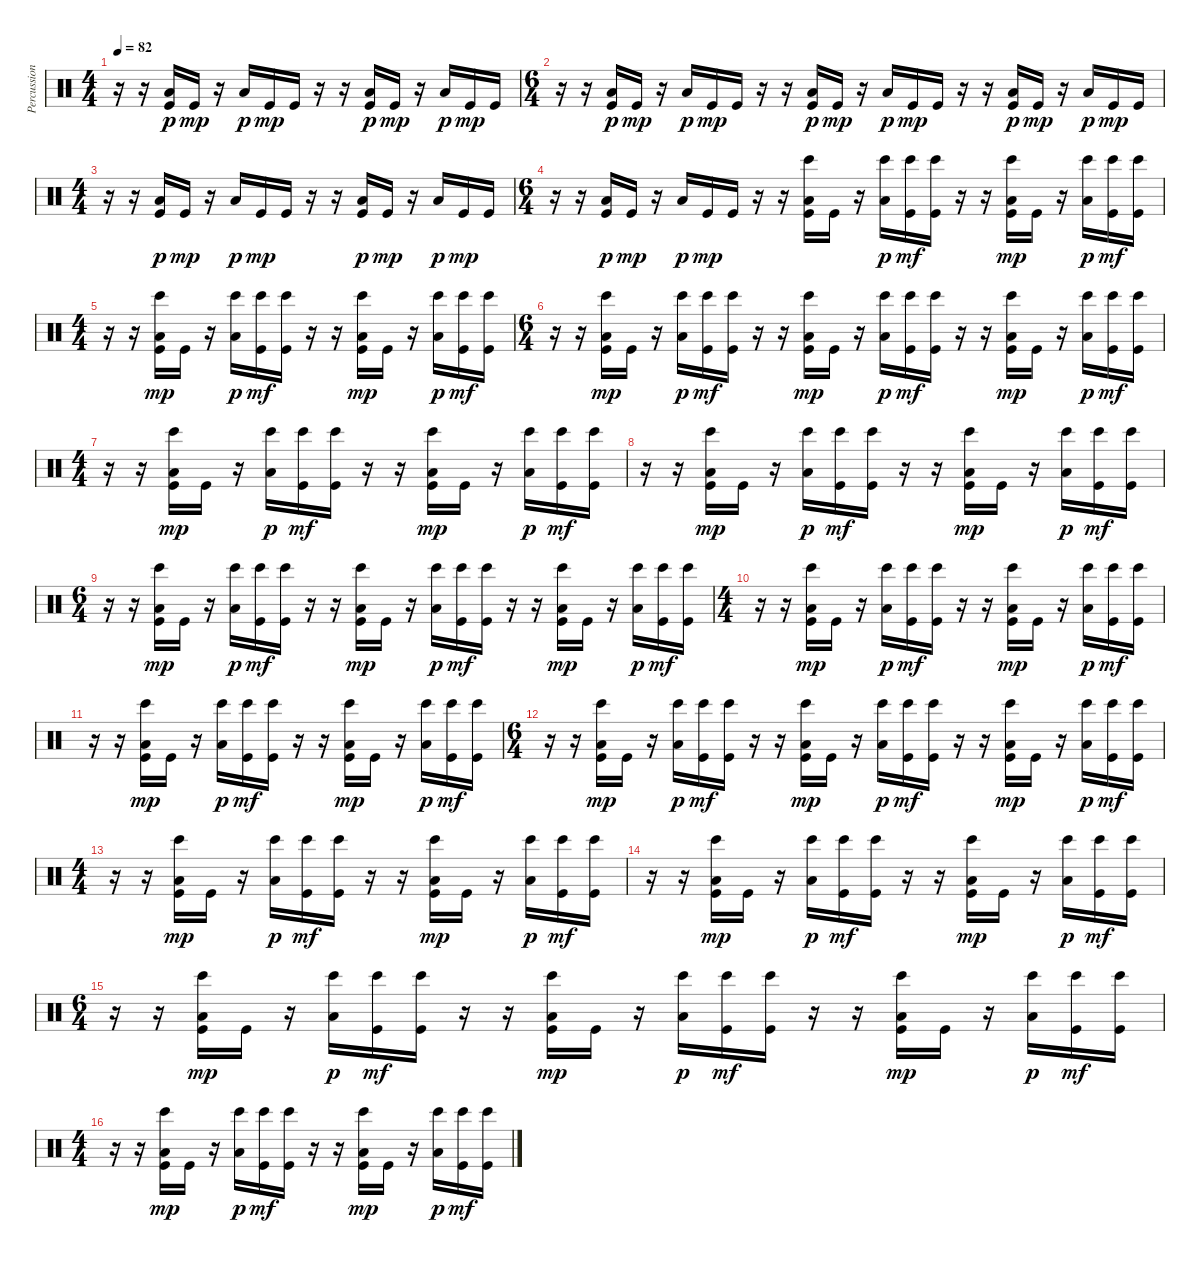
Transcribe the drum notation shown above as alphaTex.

\track ("Percussion" "Percussion") {instrument percussion}
\staff {score}
\articulation defaults
\ts (4 4)
\tempo 82
\clef neutral
\ks c
r.16{dy mp} r.16 ("Kick (hit)" "Low Floor Tom (hit)").16{dy p} "Kick (hit)".16{dy mp} r.16 "Low Floor Tom (hit)".16{dy p} "Kick (hit)".16{dy mp} "Kick (hit)".16 r.16 r.16 ("Kick (hit)" "Low Floor Tom (hit)").16{dy p} "Kick (hit)".16{dy mp} r.16 "Low Floor Tom (hit)".16{dy p} "Kick (hit)".16{dy mp} "Kick (hit)".16 |
\ts (6 4)
r.16 r.16 ("Kick (hit)" "Low Floor Tom (hit)").16{dy p} "Kick (hit)".16{dy mp} r.16 "Low Floor Tom (hit)".16{dy p} "Kick (hit)".16{dy mp} "Kick (hit)".16 r.16 r.16 ("Kick (hit)" "Low Floor Tom (hit)").16{dy p} "Kick (hit)".16{dy mp} r.16 "Low Floor Tom (hit)".16{dy p} "Kick (hit)".16{dy mp} "Kick (hit)".16 r.16 r.16 ("Kick (hit)" "Low Floor Tom (hit)").16{dy p} "Kick (hit)".16{dy mp} r.16 "Low Floor Tom (hit)".16{dy p} "Kick (hit)".16{dy mp} "Kick (hit)".16 |
\ts (4 4)
r.16 r.16 ("Kick (hit)" "Low Floor Tom (hit)").16{dy p} "Kick (hit)".16{dy mp} r.16 "Low Floor Tom (hit)".16{dy p} "Kick (hit)".16{dy mp} "Kick (hit)".16 r.16 r.16 ("Kick (hit)" "Low Floor Tom (hit)").16{dy p} "Kick (hit)".16{dy mp} r.16 "Low Floor Tom (hit)".16{dy p} "Kick (hit)".16{dy mp} "Kick (hit)".16 |
\ts (6 4)
r.16 r.16 ("Kick (hit)" "Low Floor Tom (hit)").16{dy p} "Kick (hit)".16{dy mp} r.16 "Low Floor Tom (hit)".16{dy p} "Kick (hit)".16{dy mp} "Kick (hit)".16 r.16 r.16 ("Kick (hit)" "Low Floor Tom (hit)" "Bongo High (hit)").16 "Kick (hit)".16 r.16 ("Low Floor Tom (hit)" "Bongo High (hit)").16{dy p} ("Kick (hit)" "Bongo High (hit)").16{dy mf} ("Kick (hit)" "Bongo High (hit)").16 r.16 r.16 ("Kick (hit)" "Low Floor Tom (hit)" "Bongo High (hit)").16{dy mp} "Kick (hit)".16 r.16 ("Low Floor Tom (hit)" "Bongo High (hit)").16{dy p} ("Kick (hit)" "Bongo High (hit)").16{dy mf} ("Kick (hit)" "Bongo High (hit)").16 |
\ts (4 4)
r.16 r.16 ("Kick (hit)" "Low Floor Tom (hit)" "Bongo High (hit)").16{dy mp} "Kick (hit)".16 r.16 ("Low Floor Tom (hit)" "Bongo High (hit)").16{dy p} ("Kick (hit)" "Bongo High (hit)").16{dy mf} ("Kick (hit)" "Bongo High (hit)").16 r.16 r.16 ("Kick (hit)" "Low Floor Tom (hit)" "Bongo High (hit)").16{dy mp} "Kick (hit)".16 r.16 ("Low Floor Tom (hit)" "Bongo High (hit)").16{dy p} ("Kick (hit)" "Bongo High (hit)").16{dy mf} ("Kick (hit)" "Bongo High (hit)").16 |
\ts (6 4)
r.16 r.16 ("Kick (hit)" "Low Floor Tom (hit)" "Bongo High (hit)").16{dy mp} "Kick (hit)".16 r.16 ("Low Floor Tom (hit)" "Bongo High (hit)").16{dy p} ("Kick (hit)" "Bongo High (hit)").16{dy mf} ("Kick (hit)" "Bongo High (hit)").16 r.16 r.16 ("Kick (hit)" "Low Floor Tom (hit)" "Bongo High (hit)").16{dy mp} "Kick (hit)".16 r.16 ("Low Floor Tom (hit)" "Bongo High (hit)").16{dy p} ("Kick (hit)" "Bongo High (hit)").16{dy mf} ("Kick (hit)" "Bongo High (hit)").16 r.16 r.16 ("Kick (hit)" "Low Floor Tom (hit)" "Bongo High (hit)").16{dy mp} "Kick (hit)".16 r.16 ("Low Floor Tom (hit)" "Bongo High (hit)").16{dy p} ("Kick (hit)" "Bongo High (hit)").16{dy mf} ("Kick (hit)" "Bongo High (hit)").16 |
\ts (4 4)
r.16 r.16 ("Kick (hit)" "Low Floor Tom (hit)" "Bongo High (hit)").16{dy mp} "Kick (hit)".16 r.16 ("Low Floor Tom (hit)" "Bongo High (hit)").16{dy p} ("Kick (hit)" "Bongo High (hit)").16{dy mf} ("Kick (hit)" "Bongo High (hit)").16 r.16 r.16 ("Kick (hit)" "Low Floor Tom (hit)" "Bongo High (hit)").16{dy mp} "Kick (hit)".16 r.16 ("Low Floor Tom (hit)" "Bongo High (hit)").16{dy p} ("Kick (hit)" "Bongo High (hit)").16{dy mf} ("Kick (hit)" "Bongo High (hit)").16 |
r.16 r.16 ("Kick (hit)" "Low Floor Tom (hit)" "Bongo High (hit)").16{dy mp} "Kick (hit)".16 r.16 ("Low Floor Tom (hit)" "Bongo High (hit)").16{dy p} ("Kick (hit)" "Bongo High (hit)").16{dy mf} ("Kick (hit)" "Bongo High (hit)").16 r.16 r.16 ("Kick (hit)" "Low Floor Tom (hit)" "Bongo High (hit)").16{dy mp} "Kick (hit)".16 r.16 ("Low Floor Tom (hit)" "Bongo High (hit)").16{dy p} ("Kick (hit)" "Bongo High (hit)").16{dy mf} ("Kick (hit)" "Bongo High (hit)").16 |
\ts (6 4)
r.16 r.16 ("Kick (hit)" "Low Floor Tom (hit)" "Bongo High (hit)").16{dy mp} "Kick (hit)".16 r.16 ("Low Floor Tom (hit)" "Bongo High (hit)").16{dy p} ("Kick (hit)" "Bongo High (hit)").16{dy mf} ("Kick (hit)" "Bongo High (hit)").16 r.16 r.16 ("Kick (hit)" "Low Floor Tom (hit)" "Bongo High (hit)").16{dy mp} "Kick (hit)".16 r.16 ("Low Floor Tom (hit)" "Bongo High (hit)").16{dy p} ("Kick (hit)" "Bongo High (hit)").16{dy mf} ("Kick (hit)" "Bongo High (hit)").16 r.16 r.16 ("Kick (hit)" "Low Floor Tom (hit)" "Bongo High (hit)").16{dy mp} "Kick (hit)".16 r.16 ("Low Floor Tom (hit)" "Bongo High (hit)").16{dy p} ("Kick (hit)" "Bongo High (hit)").16{dy mf} ("Kick (hit)" "Bongo High (hit)").16 |
\ts (4 4)
r.16 r.16 ("Kick (hit)" "Low Floor Tom (hit)" "Bongo High (hit)").16{dy mp} "Kick (hit)".16 r.16 ("Low Floor Tom (hit)" "Bongo High (hit)").16{dy p} ("Kick (hit)" "Bongo High (hit)").16{dy mf} ("Kick (hit)" "Bongo High (hit)").16 r.16 r.16 ("Kick (hit)" "Low Floor Tom (hit)" "Bongo High (hit)").16{dy mp} "Kick (hit)".16 r.16 ("Low Floor Tom (hit)" "Bongo High (hit)").16{dy p} ("Kick (hit)" "Bongo High (hit)").16{dy mf} ("Kick (hit)" "Bongo High (hit)").16 |
r.16 r.16 ("Kick (hit)" "Low Floor Tom (hit)" "Bongo High (hit)").16{dy mp} "Kick (hit)".16 r.16 ("Low Floor Tom (hit)" "Bongo High (hit)").16{dy p} ("Kick (hit)" "Bongo High (hit)").16{dy mf} ("Kick (hit)" "Bongo High (hit)").16 r.16 r.16 ("Kick (hit)" "Low Floor Tom (hit)" "Bongo High (hit)").16{dy mp} "Kick (hit)".16 r.16 ("Low Floor Tom (hit)" "Bongo High (hit)").16{dy p} ("Kick (hit)" "Bongo High (hit)").16{dy mf} ("Kick (hit)" "Bongo High (hit)").16 |
\ts (6 4)
r.16 r.16 ("Kick (hit)" "Low Floor Tom (hit)" "Bongo High (hit)").16{dy mp} "Kick (hit)".16 r.16 ("Low Floor Tom (hit)" "Bongo High (hit)").16{dy p} ("Kick (hit)" "Bongo High (hit)").16{dy mf} ("Kick (hit)" "Bongo High (hit)").16 r.16 r.16 ("Kick (hit)" "Low Floor Tom (hit)" "Bongo High (hit)").16{dy mp} "Kick (hit)".16 r.16 ("Low Floor Tom (hit)" "Bongo High (hit)").16{dy p} ("Kick (hit)" "Bongo High (hit)").16{dy mf} ("Kick (hit)" "Bongo High (hit)").16 r.16 r.16 ("Kick (hit)" "Low Floor Tom (hit)" "Bongo High (hit)").16{dy mp} "Kick (hit)".16 r.16 ("Low Floor Tom (hit)" "Bongo High (hit)").16{dy p} ("Kick (hit)" "Bongo High (hit)").16{dy mf} ("Kick (hit)" "Bongo High (hit)").16 |
\ts (4 4)
r.16 r.16 ("Kick (hit)" "Low Floor Tom (hit)" "Bongo High (hit)").16{dy mp} "Kick (hit)".16 r.16 ("Low Floor Tom (hit)" "Bongo High (hit)").16{dy p} ("Kick (hit)" "Bongo High (hit)").16{dy mf} ("Kick (hit)" "Bongo High (hit)").16 r.16 r.16 ("Kick (hit)" "Low Floor Tom (hit)" "Bongo High (hit)").16{dy mp} "Kick (hit)".16 r.16 ("Low Floor Tom (hit)" "Bongo High (hit)").16{dy p} ("Kick (hit)" "Bongo High (hit)").16{dy mf} ("Kick (hit)" "Bongo High (hit)").16 |
r.16 r.16 ("Kick (hit)" "Low Floor Tom (hit)" "Bongo High (hit)").16{dy mp} "Kick (hit)".16 r.16 ("Low Floor Tom (hit)" "Bongo High (hit)").16{dy p} ("Kick (hit)" "Bongo High (hit)").16{dy mf} ("Kick (hit)" "Bongo High (hit)").16 r.16 r.16 ("Kick (hit)" "Low Floor Tom (hit)" "Bongo High (hit)").16{dy mp} "Kick (hit)".16 r.16 ("Low Floor Tom (hit)" "Bongo High (hit)").16{dy p} ("Kick (hit)" "Bongo High (hit)").16{dy mf} ("Kick (hit)" "Bongo High (hit)").16 |
\ts (6 4)
r.16 r.16 ("Kick (hit)" "Low Floor Tom (hit)" "Bongo High (hit)").16{dy mp} "Kick (hit)".16 r.16 ("Low Floor Tom (hit)" "Bongo High (hit)").16{dy p} ("Kick (hit)" "Bongo High (hit)").16{dy mf} ("Kick (hit)" "Bongo High (hit)").16 r.16 r.16 ("Kick (hit)" "Low Floor Tom (hit)" "Bongo High (hit)").16{dy mp} "Kick (hit)".16 r.16 ("Low Floor Tom (hit)" "Bongo High (hit)").16{dy p} ("Kick (hit)" "Bongo High (hit)").16{dy mf} ("Kick (hit)" "Bongo High (hit)").16 r.16 r.16 ("Kick (hit)" "Low Floor Tom (hit)" "Bongo High (hit)").16{dy mp} "Kick (hit)".16 r.16 ("Low Floor Tom (hit)" "Bongo High (hit)").16{dy p} ("Kick (hit)" "Bongo High (hit)").16{dy mf} ("Kick (hit)" "Bongo High (hit)").16 |
\ts (4 4)
r.16 r.16 ("Kick (hit)" "Low Floor Tom (hit)" "Bongo High (hit)").16{dy mp} "Kick (hit)".16 r.16 ("Low Floor Tom (hit)" "Bongo High (hit)").16{dy p} ("Kick (hit)" "Bongo High (hit)").16{dy mf} ("Kick (hit)" "Bongo High (hit)").16 r.16 r.16 ("Kick (hit)" "Low Floor Tom (hit)" "Bongo High (hit)").16{dy mp} "Kick (hit)".16 r.16 ("Low Floor Tom (hit)" "Bongo High (hit)").16{dy p} ("Kick (hit)" "Bongo High (hit)").16{dy mf} ("Kick (hit)" "Bongo High (hit)").16
